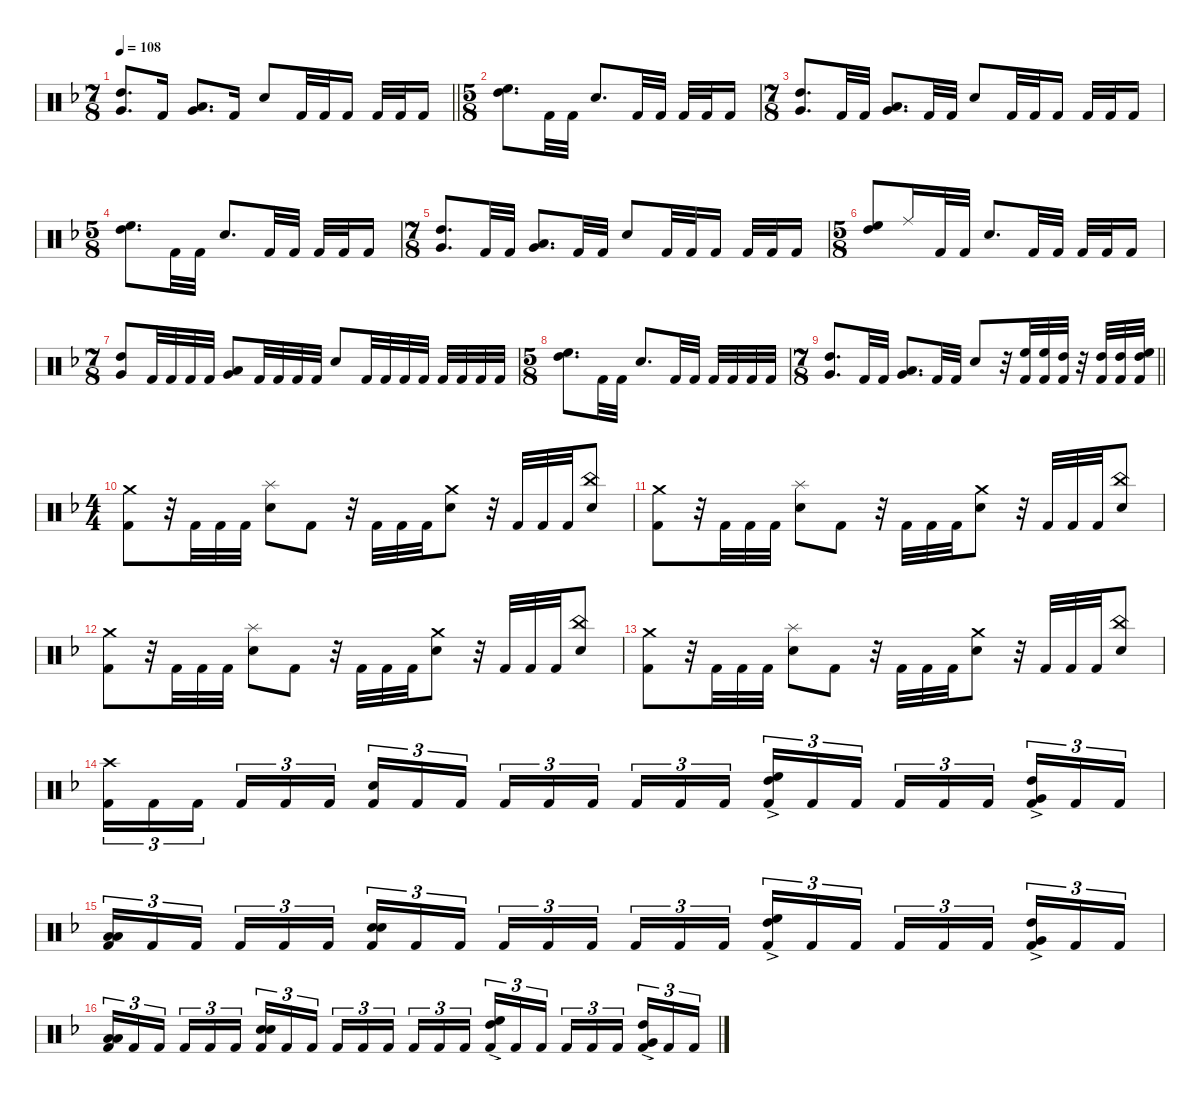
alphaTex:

\defaultSystemsLayout 4
\hideDynamics
\bracketExtendMode nobrackets
\singleTrackTrackNamePolicy hidden
\multiTrackTrackNamePolicy hidden
\firstSystemTrackNameMode fullname
\firstSystemTrackNameOrientation horizontal
\otherSystemsTrackNameOrientation horizontal
\track ("Danny Carey" "drm.") {defaultSystemsLayout 4 instrument percussion}
\staff {score}
\articulation defaults
\ts (7 8)
\beaming (8 2 2 2 2)
\tempo 108
\clef neutral
\barLineRight lightlight
\ks dminor
("High Tom (hit)"{acc forcenatural} "Very Low Tom (hit)"{acc forcenatural}).8{d dy f beam Up} "Kick (hit) 2"{acc forcenatural}.16{beam Up} ("Very Low Tom (hit)"{acc forcenatural} "Low Floor Tom (hit)"{acc forcenatural}).8{d beam Up} "Kick (hit) 2"{acc forcenatural}.16{beam Up} "Snare (hit) 2"{acc forcenatural}.8{beam Up} "Kick (hit) 2"{acc forcenatural}.32{beam Up} "Kick (hit) 2"{acc forcenatural}.32{beam Up} "Kick (hit) 2"{acc forcenatural}.16{beam Up} "Kick (hit) 2"{acc forcenatural}.32{beam Up} "Kick (hit) 2"{acc forcenatural}.32{beam Up} "Kick (hit) 2"{acc forcenatural}.16{beam Up} |
\ts (5 8)
\beaming (8 2 2 2 2)
("High Floor Tom (hit)"{acc forcenatural} "High Tom (hit)"{acc forcenatural}).8{d beam Down} "Kick (hit) 2"{acc forcenatural}.32{beam Down} "Kick (hit) 2"{acc forcenatural}.32{beam Down} "Snare (hit) 2"{acc forcenatural}.8{d beam Up} "Kick (hit) 2"{acc forcenatural}.32{beam Up} "Kick (hit) 2"{acc forcenatural}.32{beam Up} "Kick (hit) 2"{acc forcenatural}.32{beam Up} "Kick (hit) 2"{acc forcenatural}.32{beam Up} "Kick (hit) 2"{acc forcenatural}.16{beam Up} |
\ts (7 8)
\beaming (8 2 2 2 2)
("High Tom (hit)"{acc forcenatural} "Very Low Tom (hit)"{acc forcenatural}).8{d beam Up} "Kick (hit) 2"{acc forcenatural}.32{beam Up} "Kick (hit) 2"{acc forcenatural}.32{beam Up} ("Very Low Tom (hit)"{acc forcenatural} "Low Floor Tom (hit)"{acc forcenatural}).8{d beam Up} "Kick (hit) 2"{acc forcenatural}.32{beam Up} "Kick (hit) 2"{acc forcenatural}.32{beam Up} "Snare (hit) 2"{acc forcenatural}.8{beam Up} "Kick (hit) 2"{acc forcenatural}.32{beam Up} "Kick (hit) 2"{acc forcenatural}.32{beam Up} "Kick (hit) 2"{acc forcenatural}.16{beam Up} "Kick (hit) 2"{acc forcenatural}.32{beam Up} "Kick (hit) 2"{acc forcenatural}.32{beam Up} "Kick (hit) 2"{acc forcenatural}.16{beam Up} |
\ts (5 8)
\beaming (8 2 2 2 2)
("High Floor Tom (hit)"{acc forcenatural} "High Tom (hit)"{acc forcenatural}).8{d beam Down} "Kick (hit) 2"{acc forcenatural}.32{beam Down} "Kick (hit) 2"{acc forcenatural}.32{beam Down} "Snare (hit) 2"{acc forcenatural}.8{d beam Up} "Kick (hit) 2"{acc forcenatural}.32{beam Up} "Kick (hit) 2"{acc forcenatural}.32{beam Up} "Kick (hit) 2"{acc forcenatural}.32{beam Up} "Kick (hit) 2"{acc forcenatural}.32{beam Up} "Kick (hit) 2"{acc forcenatural}.16{beam Up} |
\ts (7 8)
\beaming (8 2 2 2 2)
("High Tom (hit)"{acc forcenatural} "Very Low Tom (hit)"{acc forcenatural}).8{d beam Up} "Kick (hit) 2"{acc forcenatural}.32{beam Up} "Kick (hit) 2"{acc forcenatural}.32{beam Up} ("Very Low Tom (hit)"{acc forcenatural} "Low Floor Tom (hit)"{acc forcenatural}).8{d beam Up} "Kick (hit) 2"{acc forcenatural}.32{beam Up} "Kick (hit) 2"{acc forcenatural}.32{beam Up} "Snare (hit) 2"{acc forcenatural}.8{beam Up} "Kick (hit) 2"{acc forcenatural}.32{beam Up} "Kick (hit) 2"{acc forcenatural}.32{beam Up} "Kick (hit) 2"{acc forcenatural}.16{beam Up} "Kick (hit) 2"{acc forcenatural}.32{beam Up} "Kick (hit) 2"{acc forcenatural}.32{beam Up} "Kick (hit) 2"{acc forcenatural}.16{beam Up} |
\ts (5 8)
\beaming (8 2 2 2 2)
("High Floor Tom (hit)"{acc forcenatural} "High Tom (hit)"{acc forcenatural}).8{beam Up} "Ride (middle)"{acc forcenatural}.16{beam Up} "Kick (hit) 2"{acc forcenatural}.32{beam Up} "Kick (hit) 2"{acc forcenatural}.32{beam Up} "Snare (hit) 2"{acc forcenatural}.8{d beam Up} "Kick (hit) 2"{acc forcenatural}.32{beam Up} "Kick (hit) 2"{acc forcenatural}.32{beam Up} "Kick (hit) 2"{acc forcenatural}.32{beam Up} "Kick (hit) 2"{acc forcenatural}.32{beam Up} "Kick (hit) 2"{acc forcenatural}.16{beam Up} |
\ts (7 8)
\beaming (8 2 2 2 2)
("High Tom (hit)"{acc forcenatural} "Very Low Tom (hit)"{acc forcenatural}).8{beam Up} "Kick (hit) 2"{acc forcenatural}.32{beam Up} "Kick (hit) 2"{acc forcenatural}.32{beam Up} "Kick (hit) 2"{acc forcenatural}.32{beam Up} "Kick (hit) 2"{acc forcenatural}.32{beam Up} ("Very Low Tom (hit)"{acc forcenatural} "Low Floor Tom (hit)"{acc forcenatural}).8{beam Up} "Kick (hit) 2"{acc forcenatural}.32{beam Up} "Kick (hit) 2"{acc forcenatural}.32{beam Up} "Kick (hit) 2"{acc forcenatural}.32{beam Up} "Kick (hit) 2"{acc forcenatural}.32{beam Up} "Snare (hit) 2"{acc forcenatural}.8{beam Up} "Kick (hit) 2"{acc forcenatural}.32{beam Up} "Kick (hit) 2"{acc forcenatural}.32{beam Up} "Kick (hit) 2"{acc forcenatural}.32{beam Up} "Kick (hit) 2"{acc forcenatural}.32{beam Up} "Kick (hit) 2"{acc forcenatural}.32{beam Up} "Kick (hit) 2"{acc forcenatural}.32{beam Up} "Kick (hit) 2"{acc forcenatural}.32{beam Up} "Kick (hit) 2"{acc forcenatural}.32{beam Up} |
\ts (5 8)
\beaming (8 2 2 2 2)
("High Floor Tom (hit)"{acc forcenatural} "High Tom (hit)"{acc forcenatural}).8{d beam Down} "Kick (hit) 2"{acc forcenatural}.32{beam Down} "Kick (hit) 2"{acc forcenatural}.32{beam Down} "Snare (hit) 2"{acc forcenatural}.8{d beam Up} "Kick (hit) 2"{acc forcenatural}.32{beam Up} "Kick (hit) 2"{acc forcenatural}.32{beam Up} "Kick (hit) 2"{acc forcenatural}.32{beam Up} "Kick (hit) 2"{acc forcenatural}.32{beam Up} "Kick (hit) 2"{acc forcenatural}.32{beam Up} "Kick (hit) 2"{acc forcenatural}.32{beam Up} |
\ts (7 8)
\beaming (8 2 2 2 2)
\barLineRight lightlight
("High Tom (hit)"{acc forcenatural} "Very Low Tom (hit)"{acc forcenatural}).8{d beam Up} "Kick (hit) 2"{acc forcenatural}.32{beam Up} "Kick (hit) 2"{acc forcenatural}.32{beam Up} ("Very Low Tom (hit)"{acc forcenatural} "Low Floor Tom (hit)"{acc forcenatural}).8{d beam Up} "Kick (hit) 2"{acc forcenatural}.32{beam Up} "Kick (hit) 2"{acc forcenatural}.32{beam Up} "Snare (hit) 2"{acc forcenatural}.8{beam Up} r.32{beam Up} ("High Floor Tom (hit)"{acc forcenatural} "Kick (hit) 2"{acc forcenatural}).32{beam Up} ("High Floor Tom (hit)"{acc forcenatural} "Kick (hit) 2"{acc forcenatural}).32{beam Up} ("High Tom (hit)"{acc forcenatural} "Kick (hit) 2"{acc forcenatural}).32{beam Up} r.32{beam Up} ("High Tom (hit)"{acc forcenatural} "Kick (hit) 2"{acc forcenatural}).32{beam Up} ("High Tom (hit)"{acc forcenatural} "Kick (hit) 2"{acc forcenatural}).32{beam Up} ("High Floor Tom (hit)"{acc forcenatural} "High Tom (hit)"{acc forcenatural} "Kick (hit) 2"{acc forcenatural}).32{beam Up} |
\ts (4 4)
\beaming (8 2 2 2 2)
("Crash medium (hit)"{acc forcenatural} "Kick (hit) 2"{acc forcenatural}).8{beam Down} r.32{beam Down} "Kick (hit) 2"{acc forcenatural}.32{beam Down} "Kick (hit) 2"{acc forcenatural}.32{beam Down} "Kick (hit) 2"{acc forcenatural}.32{beam Down} ("Splash (hit)"{acc forcenatural} "Snare (hit) 2"{acc forcenatural}).8{beam Down} "Kick (hit) 2"{acc forcenatural}.8{beam Down} r.32{beam Down} "Kick (hit) 2"{acc forcenatural}.32{beam Up} "Kick (hit) 2"{acc forcenatural}.32{beam Up} "Kick (hit) 2"{acc forcenatural}.32{beam Up} ("Crash medium (hit)"{acc forcenatural} "Snare (hit) 2"{acc forcenatural}).8{beam Up} r.32{beam Up} "Kick (hit) 2"{acc forcenatural}.32{beam Up} "Kick (hit) 2"{acc forcenatural}.32{beam Up} "Kick (hit) 2"{acc forcenatural}.32{beam Up} ("China (hit)"{acc forcenatural} "Snare (hit) 2"{acc forcenatural}).8{beam Up} |
("Crash medium (hit)"{acc forcenatural} "Kick (hit) 2"{acc forcenatural}).8{beam Down} r.32{beam Down} "Kick (hit) 2"{acc forcenatural}.32{beam Down} "Kick (hit) 2"{acc forcenatural}.32{beam Down} "Kick (hit) 2"{acc forcenatural}.32{beam Down} ("Splash (hit)"{acc forcenatural} "Snare (hit) 2"{acc forcenatural}).8{beam Down} "Kick (hit) 2"{acc forcenatural}.8{beam Down} r.32{beam Down} "Kick (hit) 2"{acc forcenatural}.32{beam Up} "Kick (hit) 2"{acc forcenatural}.32{beam Up} "Kick (hit) 2"{acc forcenatural}.32{beam Up} ("Crash medium (hit)"{acc forcenatural} "Snare (hit) 2"{acc forcenatural}).8{beam Up} r.32{beam Up} "Kick (hit) 2"{acc forcenatural}.32{beam Up} "Kick (hit) 2"{acc forcenatural}.32{beam Up} "Kick (hit) 2"{acc forcenatural}.32{beam Up} ("China (hit)"{acc forcenatural} "Snare (hit) 2"{acc forcenatural}).8{beam Up} |
("Crash medium (hit)"{acc forcenatural} "Kick (hit) 2"{acc forcenatural}).8{beam Down} r.32{beam Down} "Kick (hit) 2"{acc forcenatural}.32{beam Down} "Kick (hit) 2"{acc forcenatural}.32{beam Down} "Kick (hit) 2"{acc forcenatural}.32{beam Down} ("Splash (hit)"{acc forcenatural} "Snare (hit) 2"{acc forcenatural}).8{beam Down} "Kick (hit) 2"{acc forcenatural}.8{beam Down} r.32{beam Down} "Kick (hit) 2"{acc forcenatural}.32{beam Up} "Kick (hit) 2"{acc forcenatural}.32{beam Up} "Kick (hit) 2"{acc forcenatural}.32{beam Up} ("Crash medium (hit)"{acc forcenatural} "Snare (hit) 2"{acc forcenatural}).8{beam Up} r.32{beam Up} "Kick (hit) 2"{acc forcenatural}.32{beam Up} "Kick (hit) 2"{acc forcenatural}.32{beam Up} "Kick (hit) 2"{acc forcenatural}.32{beam Up} ("China (hit)"{acc forcenatural} "Snare (hit) 2"{acc forcenatural}).8{beam Up} |
("Crash medium (hit)"{acc forcenatural} "Kick (hit) 2"{acc forcenatural}).8{beam Down} r.32{beam Down} "Kick (hit) 2"{acc forcenatural}.32{beam Down} "Kick (hit) 2"{acc forcenatural}.32{beam Down} "Kick (hit) 2"{acc forcenatural}.32{beam Down} ("Splash (hit)"{acc forcenatural} "Snare (hit) 2"{acc forcenatural}).8{beam Down} "Kick (hit) 2"{acc forcenatural}.8{beam Down} r.32{beam Down} "Kick (hit) 2"{acc forcenatural}.32{beam Up} "Kick (hit) 2"{acc forcenatural}.32{beam Up} "Kick (hit) 2"{acc forcenatural}.32{beam Up} ("Crash medium (hit)"{acc forcenatural} "Snare (hit) 2"{acc forcenatural}).8{beam Up} r.32{beam Up} "Kick (hit) 2"{acc forcenatural}.32{beam Up} "Kick (hit) 2"{acc forcenatural}.32{beam Up} "Kick (hit) 2"{acc forcenatural}.32{beam Up} ("China (hit)"{acc forcenatural} "Snare (hit) 2"{acc forcenatural}).8{beam Up} |
("Crash high (hit)"{acc forcenatural} "Kick (hit) 2"{acc forcenatural}).16{tu (3 2) beam Down} "Kick (hit) 2"{acc forcenatural}.16{tu (3 2) beam Down} "Kick (hit) 2"{acc forcenatural}.16{tu (3 2) beam Down} "Kick (hit) 2"{acc forcenatural}.16{tu (3 2) beam Up} "Kick (hit) 2"{acc forcenatural}.16{tu (3 2) beam Up} "Kick (hit) 2"{acc forcenatural}.16{tu (3 2) beam Up} ("Snare (hit) 2"{acc forcenatural} "Kick (hit) 2"{acc forcenatural}).16{tu (3 2) beam Up} "Kick (hit) 2"{acc forcenatural}.16{tu (3 2) beam Up} "Kick (hit) 2"{acc forcenatural}.16{tu (3 2) beam Up} "Kick (hit) 2"{acc forcenatural}.16{tu (3 2) beam Up} "Kick (hit) 2"{acc forcenatural}.16{tu (3 2) beam Up} "Kick (hit) 2"{acc forcenatural}.16{tu (3 2) beam Up} "Kick (hit) 2"{acc forcenatural}.16{tu (3 2) beam Up} "Kick (hit) 2"{acc forcenatural}.16{tu (3 2) beam Up} "Kick (hit) 2"{acc forcenatural}.16{tu (3 2) beam Up} ("High Floor Tom (hit)"{ac acc forcenatural} "High Tom (hit)"{ac acc forcenatural} "Kick (hit) 2"{acc forcenatural}).16{tu (3 2) beam Up} "Kick (hit) 2"{acc forcenatural}.16{tu (3 2) beam Up} "Kick (hit) 2"{acc forcenatural}.16{tu (3 2) beam Up} "Kick (hit) 2"{acc forcenatural}.16{tu (3 2) beam Up} "Kick (hit) 2"{acc forcenatural}.16{tu (3 2) beam Up} "Kick (hit) 2"{acc forcenatural}.16{tu (3 2) beam Up} ("High Tom (hit)"{ac acc forcenatural} "Very Low Tom (hit)"{ac acc forcenatural} "Kick (hit) 2"{acc forcenatural}).16{tu (3 2) beam Up} "Kick (hit) 2"{acc forcenatural}.16{tu (3 2) beam Up} "Kick (hit) 2"{acc forcenatural}.16{tu (3 2) beam Up} |
("Low Floor Tom (hit)"{acc forcenatural} "Low Floor Tom (hit)"{acc forcenatural} "Kick (hit) 2"{acc forcenatural}).16{tu (3 2) beam Up} "Kick (hit) 2"{acc forcenatural}.16{tu (3 2) beam Up} "Kick (hit) 2"{acc forcenatural}.16{tu (3 2) beam Up} "Kick (hit) 2"{acc forcenatural}.16{tu (3 2) beam Up} "Kick (hit) 2"{acc forcenatural}.16{tu (3 2) beam Up} "Kick (hit) 2"{acc forcenatural}.16{tu (3 2) beam Up} ("Snare (hit) 2"{acc forcenatural} "Snare (hit) 2"{acc forcenatural} "Kick (hit) 2"{acc forcenatural}).16{tu (3 2) beam Up} "Kick (hit) 2"{acc forcenatural}.16{tu (3 2) beam Up} "Kick (hit) 2"{acc forcenatural}.16{tu (3 2) beam Up} "Kick (hit) 2"{acc forcenatural}.16{tu (3 2) beam Up} "Kick (hit) 2"{acc forcenatural}.16{tu (3 2) beam Up} "Kick (hit) 2"{acc forcenatural}.16{tu (3 2) beam Up} "Kick (hit) 2"{acc forcenatural}.16{tu (3 2) beam Up} "Kick (hit) 2"{acc forcenatural}.16{tu (3 2) beam Up} "Kick (hit) 2"{acc forcenatural}.16{tu (3 2) beam Up} ("High Floor Tom (hit)"{ac acc forcenatural} "High Tom (hit)"{ac acc forcenatural} "Kick (hit) 2"{acc forcenatural}).16{tu (3 2) beam Up} "Kick (hit) 2"{acc forcenatural}.16{tu (3 2) beam Up} "Kick (hit) 2"{acc forcenatural}.16{tu (3 2) beam Up} "Kick (hit) 2"{acc forcenatural}.16{tu (3 2) beam Up} "Kick (hit) 2"{acc forcenatural}.16{tu (3 2) beam Up} "Kick (hit) 2"{acc forcenatural}.16{tu (3 2) beam Up} ("High Tom (hit)"{ac acc forcenatural} "Very Low Tom (hit)"{ac acc forcenatural} "Kick (hit) 2"{acc forcenatural}).16{tu (3 2) beam Up} "Kick (hit) 2"{acc forcenatural}.16{tu (3 2) beam Up} "Kick (hit) 2"{acc forcenatural}.16{tu (3 2) beam Up} |
("Low Floor Tom (hit)"{acc forcenatural} "Low Floor Tom (hit)"{acc forcenatural} "Kick (hit) 2"{acc forcenatural}).16{tu (3 2) beam Up} "Kick (hit) 2"{acc forcenatural}.16{tu (3 2) beam Up} "Kick (hit) 2"{acc forcenatural}.16{tu (3 2) beam Up} "Kick (hit) 2"{acc forcenatural}.16{tu (3 2) beam Up} "Kick (hit) 2"{acc forcenatural}.16{tu (3 2) beam Up} "Kick (hit) 2"{acc forcenatural}.16{tu (3 2) beam Up} ("Snare (hit) 2"{acc forcenatural} "Snare (hit) 2"{acc forcenatural} "Kick (hit) 2"{acc forcenatural}).16{tu (3 2) beam Up} "Kick (hit) 2"{acc forcenatural}.16{tu (3 2) beam Up} "Kick (hit) 2"{acc forcenatural}.16{tu (3 2) beam Up} "Kick (hit) 2"{acc forcenatural}.16{tu (3 2) beam Up} "Kick (hit) 2"{acc forcenatural}.16{tu (3 2) beam Up} "Kick (hit) 2"{acc forcenatural}.16{tu (3 2) beam Up} "Kick (hit) 2"{acc forcenatural}.16{tu (3 2) beam Up} "Kick (hit) 2"{acc forcenatural}.16{tu (3 2) beam Up} "Kick (hit) 2"{acc forcenatural}.16{tu (3 2) beam Up} ("High Floor Tom (hit)"{ac acc forcenatural} "High Tom (hit)"{ac acc forcenatural} "Kick (hit) 2"{acc forcenatural}).16{tu (3 2) beam Up} "Kick (hit) 2"{acc forcenatural}.16{tu (3 2) beam Up} "Kick (hit) 2"{acc forcenatural}.16{tu (3 2) beam Up} "Kick (hit) 2"{acc forcenatural}.16{tu (3 2) beam Up} "Kick (hit) 2"{acc forcenatural}.16{tu (3 2) beam Up} "Kick (hit) 2"{acc forcenatural}.16{tu (3 2) beam Up} ("High Tom (hit)"{ac acc forcenatural} "Very Low Tom (hit)"{ac acc forcenatural} "Kick (hit) 2"{acc forcenatural}).16{tu (3 2) beam Up} "Kick (hit) 2"{acc forcenatural}.16{tu (3 2) beam Up} "Kick (hit) 2"{acc forcenatural}.16{tu (3 2) beam Up}
